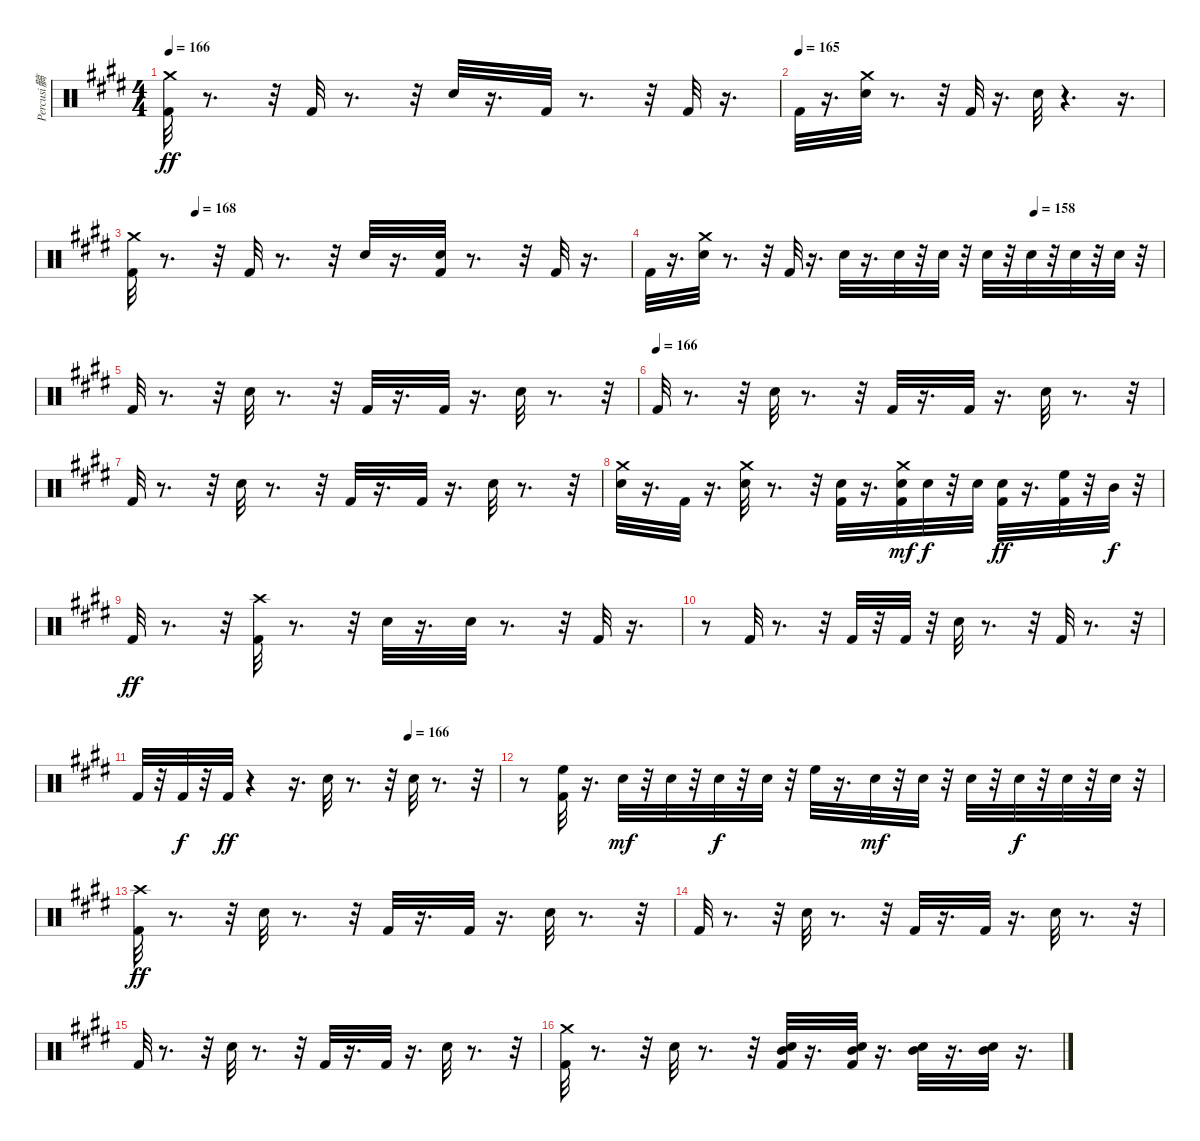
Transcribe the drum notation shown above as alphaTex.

\track ("Percusi髇" "Percusi髇") {instrument percussion}
\staff {score}
\articulation defaults
\ts (4 4)
\tempo 166
\clef neutral
\ks e
("Crash medium (hit)" "Kick (hit) 2").32{dy ff} r.8{d} r.32 "Kick (hit) 2".32 r.8{d} r.32 "Electric Snare (hit)".32 r.16{d} "Kick (hit) 2".32 r.8{d} r.32 "Kick (hit) 2".32 r.16{d} |
\tempo (165)
"Kick (hit) 2".32 r.16{d} ("Crash medium (hit)" "Electric Snare (hit)").32 r.8{d} r.32 "Kick (hit) 2".32 r.16{d} "Electric Snare (hit)".32 r.4{d} r.16{d} |
\tempo (168 0.125)
("Crash medium (hit)" "Kick (hit) 2").32 r.8{d} r.32 "Kick (hit) 2".32 r.8{d} r.32 "Electric Snare (hit)".32 r.16{d} ("Kick (hit) 2" "Electric Snare (hit)").32 r.8{d} r.32 "Kick (hit) 2".32 r.16{d} |
\tempo (158 0.75)
"Kick (hit) 2".32 r.16{d} ("Crash medium (hit)" "Electric Snare (hit)").32 r.8{d} r.32 "Kick (hit) 2".32 r.16{d} "Electric Snare (hit)".32 r.16{d} "Electric Snare (hit)".32 r.32 "Electric Snare (hit)".32 r.32 "Electric Snare (hit)".32 r.32 "Electric Snare (hit)".32 r.32 "Electric Snare (hit)".32 r.32 "Electric Snare (hit)".32 r.32 |
"Kick (hit) 2".32 r.8{d} r.32 "Electric Snare (hit)".32 r.8{d} r.32 "Kick (hit) 2".32 r.16{d} "Kick (hit) 2".32 r.16{d} "Electric Snare (hit)".32 r.8{d} r.32 |
\tempo (166)
"Kick (hit) 2".32 r.8{d} r.32 "Electric Snare (hit)".32 r.8{d} r.32 "Kick (hit) 2".32 r.16{d} "Kick (hit) 2".32 r.16{d} "Electric Snare (hit)".32 r.8{d} r.32 |
"Kick (hit) 2".32 r.8{d} r.32 "Electric Snare (hit)".32 r.8{d} r.32 "Kick (hit) 2".32 r.16{d} "Kick (hit) 2".32 r.16{d} "Electric Snare (hit)".32 r.8{d} r.32 |
("Crash medium (hit)" "Electric Snare (hit)").32 r.16{d} "Kick (hit) 2".32 r.16{d} ("Crash medium (hit)" "Electric Snare (hit)").32 r.8{d} r.32 ("Kick (hit) 2" "Electric Snare (hit)").32 r.16{d} ("Crash medium (hit)" "Kick (hit) 2" "Electric Snare (hit)").32{dy mf} "Electric Snare (hit)".32{dy f} r.32 "Electric Snare (hit)".32 ("Kick (hit) 2" "Electric Snare (hit)").32{dy ff} r.16{d} ("High Floor Tom (hit)" "Kick (hit) 2").32 r.32 "Mid Tom (hit)".32{dy f} r.32 |
"Kick (hit) 2".32{dy ff} r.8{d} r.32 ("Crash high (hit)" "Kick (hit) 2").32 r.8{d} r.32 "Electric Snare (hit)".32 r.16{d} "Electric Snare (hit)".32 r.8{d} r.32 "Kick (hit) 2".32 r.16{d} |
r.8 "Kick (hit) 2".32 r.8{d} r.32 "Kick (hit) 2".32 r.32 "Kick (hit) 2".32 r.32 "Electric Snare (hit)".32 r.8{d} r.32 "Kick (hit) 2".32 r.8{d} r.32 |
\tempo (166 0.75)
"Kick (hit) 2".32 r.32 "Kick (hit) 2".32{dy f} r.32 "Kick (hit) 2".32{dy ff} r.4 r.16{d} "Electric Snare (hit)".32 r.8{d} r.32 "Electric Snare (hit)".32 r.8{d} r.32 |
r.8 ("High Floor Tom (hit)" "Kick (hit) 2").32 r.16{d} "Electric Snare (hit)".32{dy mf} r.32 "Electric Snare (hit)".32 r.32 "Electric Snare (hit)".32{dy f} r.32 "Electric Snare (hit)".32 r.32 "High Floor Tom (hit)".32 r.16{d} "Electric Snare (hit)".32{dy mf} r.32 "Electric Snare (hit)".32 r.32 "Electric Snare (hit)".32 r.32 "Electric Snare (hit)".32{dy f} r.32 "Electric Snare (hit)".32 r.32 "Electric Snare (hit)".32 r.32 |
("Crash high (hit)" "Kick (hit) 2").32{dy ff} r.8{d} r.32 "Electric Snare (hit)".32 r.8{d} r.32 "Kick (hit) 2".32 r.16{d} "Kick (hit) 2".32 r.16{d} "Electric Snare (hit)".32 r.8{d} r.32 |
"Kick (hit) 2".32 r.8{d} r.32 "Electric Snare (hit)".32 r.8{d} r.32 "Kick (hit) 2".32 r.16{d} "Kick (hit) 2".32 r.16{d} "Electric Snare (hit)".32 r.8{d} r.32 |
"Kick (hit) 2".32 r.8{d} r.32 "Electric Snare (hit)".32 r.8{d} r.32 "Kick (hit) 2".32 r.16{d} "Kick (hit) 2".32 r.16{d} "Electric Snare (hit)".32 r.8{d} r.32 |
("Crash medium (hit)" "Kick (hit) 2").32 r.8{d} r.32 "Electric Snare (hit)".32 r.8{d} r.32 ("Mid Tom (hit)" "Kick (hit) 2" "Electric Snare (hit)").32 r.16{d} ("Mid Tom (hit)" "Kick (hit) 2" "Electric Snare (hit)").32 r.16{d} ("Mid Tom (hit)" "Electric Snare (hit)").32 r.16{d} ("Mid Tom (hit)" "Electric Snare (hit)").32 r.16{d}
